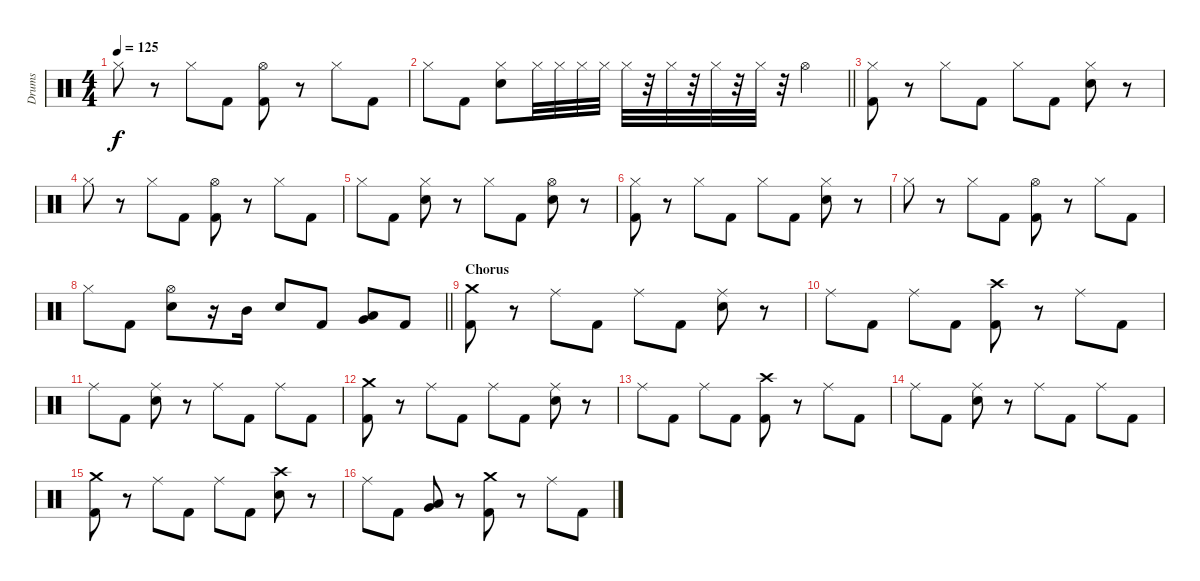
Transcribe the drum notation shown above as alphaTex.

\track ("Drums" "Drums") {instrument percussion}
\staff {score}
\articulation defaults
\ts (4 4)
\tempo 125
\clef neutral
\ks c "Hi-Hat (closed)".8{dy f}
r.8 "Hi-Hat (closed)".8 "Kick (hit) 2".8 ("Hi-Hat (open)" "Kick (hit) 2").8 r.8 "Hi-Hat (closed)".8 "Kick (hit) 2".8 |
\barLineRight lightlight "Hi-Hat (closed)".8 "Kick (hit) 2".8
("Hi-Hat (closed)" "Electric Snare (hit)").8 "Hi-Hat (closed)".32 "Hi-Hat (closed)".32 "Hi-Hat (closed)".32 "Hi-Hat (closed)".32 "Hi-Hat (closed)".32 r.32 "Hi-Hat (closed)".32 r.32 "Hi-Hat (closed)".32 r.32 "Hi-Hat (closed)".32 r.32 "Hi-Hat (open)".4 |
("Hi-Hat (closed)" "Kick (hit) 2").8 r.8 "Hi-Hat (closed)".8 "Kick (hit) 2".8 "Hi-Hat (closed)".8 "Kick (hit) 2".8 ("Hi-Hat (closed)" "Electric Snare (hit)").8 r.8 |
"Hi-Hat (closed)".8 r.8 "Hi-Hat (closed)".8 "Kick (hit) 2".8 ("Hi-Hat (open)" "Kick (hit) 2").8 r.8 "Hi-Hat (closed)".8 "Kick (hit) 2".8 |
"Hi-Hat (closed)".8 "Kick (hit) 2".8 ("Hi-Hat (closed)" "Electric Snare (hit)").8 r.8 "Hi-Hat (closed)".8 "Kick (hit) 2".8 ("Hi-Hat (open)" "Electric Snare (hit)").8 r.8 |
("Hi-Hat (closed)" "Kick (hit) 2").8 r.8 "Hi-Hat (closed)".8 "Kick (hit) 2".8 "Hi-Hat (closed)".8 "Kick (hit) 2".8 ("Hi-Hat (closed)" "Electric Snare (hit)").8 r.8 |
"Hi-Hat (closed)".8 r.8 "Hi-Hat (closed)".8 "Kick (hit) 2".8 ("Hi-Hat (open)" "Kick (hit) 2").8 r.8 "Hi-Hat (closed)".8 "Kick (hit) 2".8 |
\barLineRight lightlight "Hi-Hat (closed)".8 "Kick (hit) 2".8
("Hi-Hat (open)" "Electric Snare (hit)").8 r.16 "Mid Tom (hit)".16 "Electric Snare (hit)".8 "Kick (hit) 2".8 ("Low Tom (hit)" "Very Low Tom (hit)").8 "Kick (hit) 2".8 |
\section ("" "Chorus")
("Crash medium (hit)" "Kick (hit) 2").8{volume 16} r.8 "Ride (middle)".8 "Kick (hit) 2".8 "Ride (middle)".8 "Kick (hit) 2".8 ("Ride (middle)" "Electric Snare (hit)").8 r.8 |
"Ride (middle)".8 "Kick (hit) 2".8 "Ride (middle)".8 "Kick (hit) 2".8 ("Crash high (hit)" "Kick (hit) 2").8 r.8 "Ride (middle)".8 "Kick (hit) 2".8 |
"Ride (middle)".8 "Kick (hit) 2".8 ("Ride (middle)" "Electric Snare (hit)").8 r.8 "Ride (middle)".8 "Kick (hit) 2".8 "Ride (middle)".8 "Kick (hit) 2".8 |
("Crash medium (hit)" "Kick (hit) 2").8{volume 16} r.8 "Ride (middle)".8 "Kick (hit) 2".8 "Ride (middle)".8 "Kick (hit) 2".8 ("Ride (middle)" "Electric Snare (hit)").8 r.8 |
"Ride (middle)".8 "Kick (hit) 2".8 "Ride (middle)".8 "Kick (hit) 2".8 ("Crash high (hit)" "Kick (hit) 2").8 r.8 "Ride (middle)".8 "Kick (hit) 2".8 |
"Ride (middle)".8 "Kick (hit) 2".8 ("Ride (middle)" "Electric Snare (hit)").8 r.8 "Ride (middle)".8 "Kick (hit) 2".8 "Ride (middle)".8 "Kick (hit) 2".8 |
("Crash medium (hit)" "Kick (hit) 2").8{volume 16} r.8 "Ride (middle)".8 "Kick (hit) 2".8 "Ride (middle)".8 "Kick (hit) 2".8 ("Crash high (hit)" "Electric Snare (hit)").8 r.8 |
"Ride (middle)".8 "Kick (hit) 2".8 ("Low Tom (hit)" "Very Low Tom (hit)").8 r.8 ("Crash medium (hit)" "Kick (hit) 2").8 r.8 "Ride (middle)".8 "Kick (hit) 2".8
